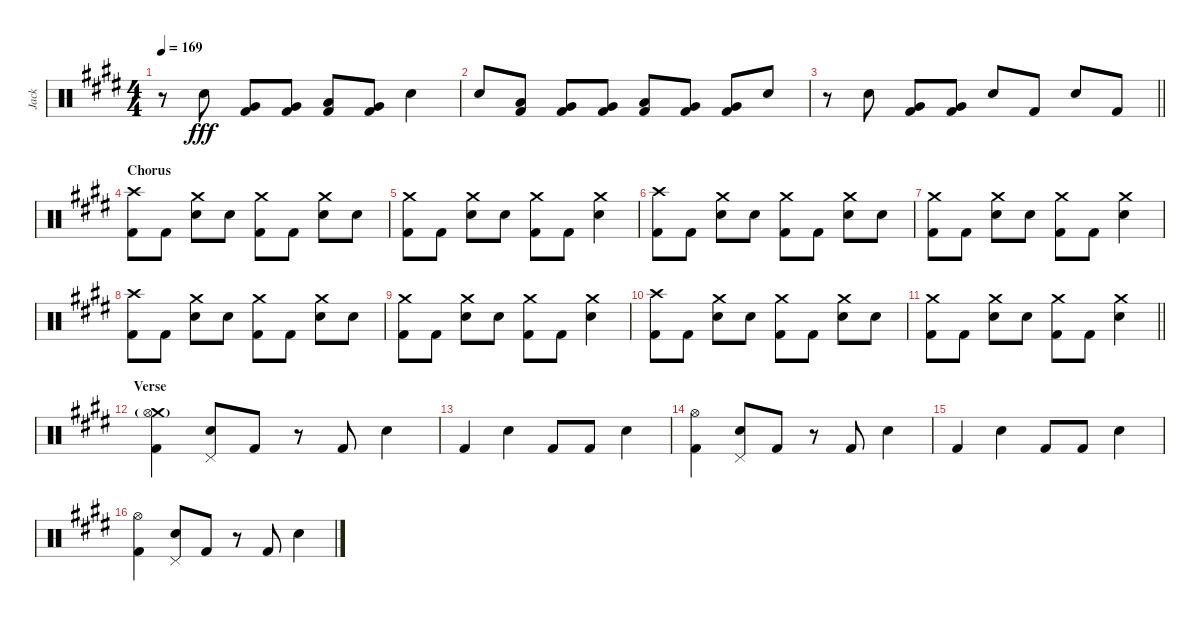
\track ("Jack" "Jack") {instrument percussion}
\staff {score}
\articulation defaults
\ts (4 4)
\tempo 169
\clef neutral
\ks c#minor
r.8{dy fff} "Electric Snare (hit)".8 ("Very Low Tom (hit)" "Kick (hit) 2").8 ("Very Low Tom (hit)" "Kick (hit) 2").8 ("Low Tom (hit)" "Kick (hit) 2").8 ("Very Low Tom (hit)" "Kick (hit) 2").8 "Electric Snare (hit)".4 |
"Electric Snare (hit)".8 ("Low Tom (hit)" "Kick (hit) 2").8 ("Very Low Tom (hit)" "Kick (hit) 2").8 ("Very Low Tom (hit)" "Kick (hit) 2").8 ("Low Tom (hit)" "Kick (hit) 2").8 ("Very Low Tom (hit)" "Kick (hit) 2").8 ("Very Low Tom (hit)" "Kick (hit) 2").8 "Electric Snare (hit)".8 |
\barLineRight lightlight
r.8 "Electric Snare (hit)".8 ("Very Low Tom (hit)" "Kick (hit) 2").8 ("Very Low Tom (hit)" "Kick (hit) 2").8 "Electric Snare (hit)".8 "Kick (hit) 2".8 "Electric Snare (hit)".8 "Kick (hit) 2".8 |
\section ("" "Chorus")
("Crash high (hit)" "Kick (hit) 2").8 "Kick (hit) 2".8 ("Crash medium (hit)" "Electric Snare (hit)").8 "Electric Snare (hit)".8 ("Crash medium (hit)" "Kick (hit) 2").8 "Kick (hit) 2".8 ("Crash medium (hit)" "Electric Snare (hit)").8 "Electric Snare (hit)".8 |
("Crash medium (hit)" "Kick (hit) 2").8 "Kick (hit) 2".8 ("Crash medium (hit)" "Electric Snare (hit)").8 "Electric Snare (hit)".8 ("Crash medium (hit)" "Kick (hit) 2").8 "Kick (hit) 2".8 ("Crash medium (hit)" "Electric Snare (hit)").4 |
("Crash high (hit)" "Kick (hit) 2").8 "Kick (hit) 2".8 ("Crash medium (hit)" "Electric Snare (hit)").8 "Electric Snare (hit)".8 ("Crash medium (hit)" "Kick (hit) 2").8 "Kick (hit) 2".8 ("Crash medium (hit)" "Electric Snare (hit)").8 "Electric Snare (hit)".8 |
("Crash medium (hit)" "Kick (hit) 2").8 "Kick (hit) 2".8 ("Crash medium (hit)" "Electric Snare (hit)").8 "Electric Snare (hit)".8 ("Crash medium (hit)" "Kick (hit) 2").8 "Kick (hit) 2".8 ("Crash medium (hit)" "Electric Snare (hit)").4 |
("Crash high (hit)" "Kick (hit) 2").8 "Kick (hit) 2".8 ("Crash medium (hit)" "Electric Snare (hit)").8 "Electric Snare (hit)".8 ("Crash medium (hit)" "Kick (hit) 2").8 "Kick (hit) 2".8 ("Crash medium (hit)" "Electric Snare (hit)").8 "Electric Snare (hit)".8 |
("Crash medium (hit)" "Kick (hit) 2").8 "Kick (hit) 2".8 ("Crash medium (hit)" "Electric Snare (hit)").8 "Electric Snare (hit)".8 ("Crash medium (hit)" "Kick (hit) 2").8 "Kick (hit) 2".8 ("Crash medium (hit)" "Electric Snare (hit)").4 |
("Crash high (hit)" "Kick (hit) 2").8 "Kick (hit) 2".8 ("Crash medium (hit)" "Electric Snare (hit)").8 "Electric Snare (hit)".8 ("Crash medium (hit)" "Kick (hit) 2").8 "Kick (hit) 2".8 ("Crash medium (hit)" "Electric Snare (hit)").8 "Electric Snare (hit)".8 |
\barLineRight lightlight
("Crash medium (hit)" "Kick (hit) 2").8 "Kick (hit) 2".8 ("Crash medium (hit)" "Electric Snare (hit)").8 "Electric Snare (hit)".8 ("Crash medium (hit)" "Kick (hit) 2").8 "Kick (hit) 2".8 ("Crash medium (hit)" "Electric Snare (hit)").4 |
\section ("" "Verse")
("Crash medium (hit)"{g} "Hi-Hat (open)" "Kick (hit) 2").4 ("Pedal Hi-Hat (hit)" "Electric Snare (hit)").8 "Kick (hit) 2".8 r.8 "Kick (hit) 2".8 "Electric Snare (hit)".4 |
"Kick (hit) 2".4 "Electric Snare (hit)".4 "Kick (hit) 2".8 "Kick (hit) 2".8 "Electric Snare (hit)".4 |
("Hi-Hat (open)" "Kick (hit) 2").4 ("Pedal Hi-Hat (hit)" "Electric Snare (hit)").8 "Kick (hit) 2".8 r.8 "Kick (hit) 2".8 "Electric Snare (hit)".4 |
"Kick (hit) 2".4 "Electric Snare (hit)".4 "Kick (hit) 2".8 "Kick (hit) 2".8 "Electric Snare (hit)".4 |
("Hi-Hat (open)" "Kick (hit) 2").4 ("Pedal Hi-Hat (hit)" "Electric Snare (hit)").8 "Kick (hit) 2".8 r.8 "Kick (hit) 2".8 "Electric Snare (hit)".4
